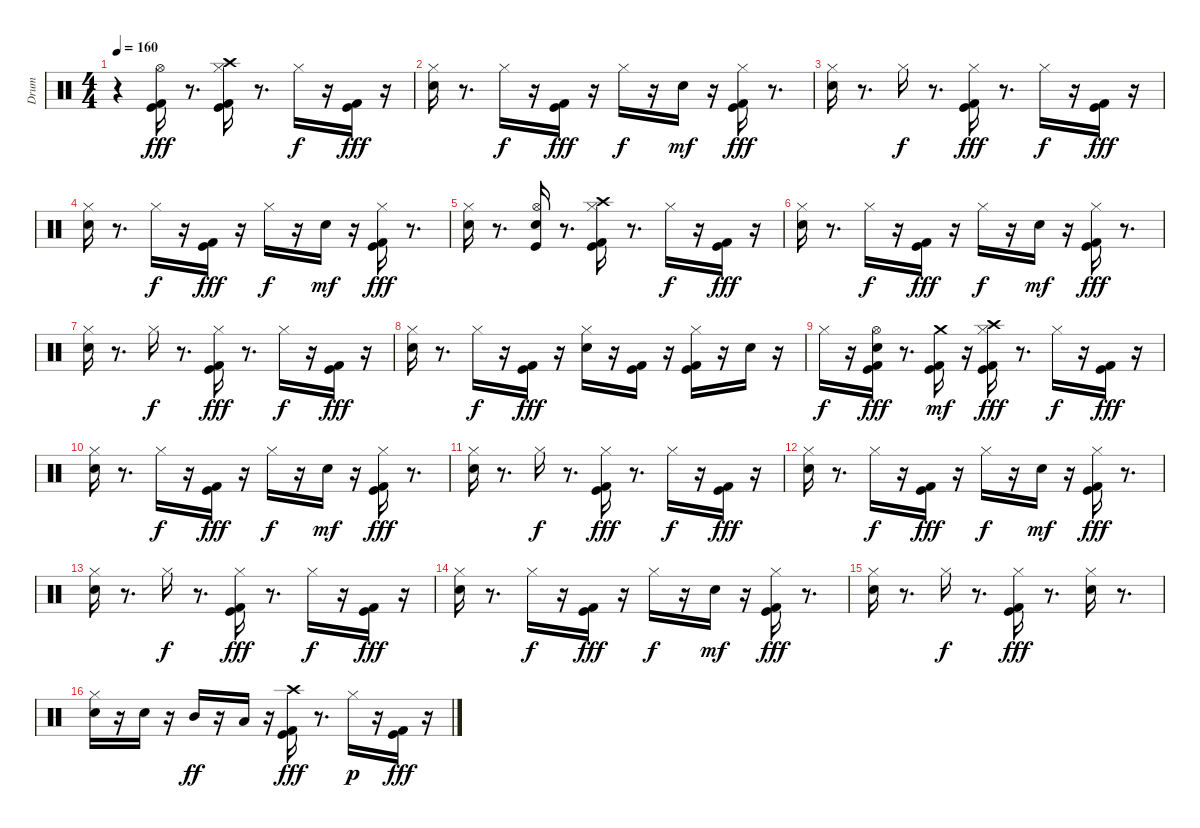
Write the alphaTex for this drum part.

\track ("Drum" "Drum") {instrument percussion}
\staff {score}
\articulation defaults
\ts (4 4)
\tempo 160
\clef neutral
\ks c
r.4{dy fff} ("Kick (hit)" "Kick (hit) 2" "Hi-Hat (open)").16 r.8{d} ("Crash high (hit)" "Kick (hit)" "Kick (hit) 2" "Hi-Hat (closed)").16 r.8{d} "Hi-Hat (closed)".16{dy f} r.16 ("Kick (hit)" "Kick (hit) 2").16{dy fff} r.16 |
("Hi-Hat (closed)" "Electric Snare (hit)").16 r.8{d} "Hi-Hat (closed)".16{dy f} r.16 ("Kick (hit)" "Kick (hit) 2").16{dy fff} r.16 "Hi-Hat (closed)".16{dy f} r.16 "Electric Snare (hit)".16{dy mf} r.16 ("Kick (hit)" "Kick (hit) 2" "Hi-Hat (closed)").16{dy fff} r.8{d} |
("Hi-Hat (closed)" "Electric Snare (hit)").16 r.8{d} "Hi-Hat (closed)".16{dy f} r.8{d} ("Kick (hit)" "Kick (hit) 2" "Hi-Hat (closed)").16{dy fff} r.8{d} "Hi-Hat (closed)".16{dy f} r.16 ("Kick (hit)" "Kick (hit) 2").16{dy fff} r.16 |
("Hi-Hat (closed)" "Electric Snare (hit)").16 r.8{d} "Hi-Hat (closed)".16{dy f} r.16 ("Kick (hit)" "Kick (hit) 2").16{dy fff} r.16 "Hi-Hat (closed)".16{dy f} r.16 "Electric Snare (hit)".16{dy mf} r.16 ("Kick (hit)" "Kick (hit) 2" "Hi-Hat (closed)").16{dy fff} r.8{d} |
("Hi-Hat (closed)" "Electric Snare (hit)").16 r.8{d} ("Hi-Hat (open)" "Electric Snare (hit)" "Kick (hit)").16 r.8{d} ("Crash high (hit)" "Kick (hit)" "Kick (hit) 2" "Hi-Hat (closed)").16 r.8{d} "Hi-Hat (closed)".16{dy f} r.16 ("Kick (hit)" "Kick (hit) 2").16{dy fff} r.16 |
("Hi-Hat (closed)" "Electric Snare (hit)").16 r.8{d} "Hi-Hat (closed)".16{dy f} r.16 ("Kick (hit)" "Kick (hit) 2").16{dy fff} r.16 "Hi-Hat (closed)".16{dy f} r.16 "Electric Snare (hit)".16{dy mf} r.16 ("Kick (hit)" "Kick (hit) 2" "Hi-Hat (closed)").16{dy fff} r.8{d} |
("Hi-Hat (closed)" "Electric Snare (hit)").16 r.8{d} "Hi-Hat (closed)".16{dy f} r.8{d} ("Kick (hit)" "Kick (hit) 2" "Hi-Hat (closed)").16{dy fff} r.8{d} "Hi-Hat (closed)".16{dy f} r.16 ("Kick (hit)" "Kick (hit) 2").16{dy fff} r.16 |
("Hi-Hat (closed)" "Electric Snare (hit)").16 r.8{d} "Hi-Hat (closed)".16{dy f} r.16 ("Kick (hit)" "Kick (hit) 2").16{dy fff} r.16 ("Hi-Hat (closed)" "Electric Snare (hit)").16 r.16 ("Kick (hit)" "Kick (hit) 2").16 r.16 ("Kick (hit)" "Kick (hit) 2" "Hi-Hat (closed)").16 r.16 "Electric Snare (hit)".16 r.16 |
"Hi-Hat (closed)".16{dy f} r.16 ("Kick (hit)" "Kick (hit) 2" "Hi-Hat (open)" "Electric Snare (hit)").16{dy fff} r.8{d} ("Kick (hit)" "Kick (hit) 2" "Crash medium (hit)").16{dy mf} r.16 ("Crash high (hit)" "Kick (hit)" "Kick (hit) 2" "Hi-Hat (closed)").16{dy fff} r.8{d} "Hi-Hat (closed)".16{dy f} r.16 ("Kick (hit)" "Kick (hit) 2").16{dy fff} r.16 |
("Hi-Hat (closed)" "Electric Snare (hit)").16 r.8{d} "Hi-Hat (closed)".16{dy f} r.16 ("Kick (hit)" "Kick (hit) 2").16{dy fff} r.16 "Hi-Hat (closed)".16{dy f} r.16 "Electric Snare (hit)".16{dy mf} r.16 ("Kick (hit)" "Kick (hit) 2" "Hi-Hat (closed)").16{dy fff} r.8{d} |
("Hi-Hat (closed)" "Electric Snare (hit)").16 r.8{d} "Hi-Hat (closed)".16{dy f} r.8{d} ("Kick (hit)" "Kick (hit) 2" "Hi-Hat (closed)").16{dy fff} r.8{d} "Hi-Hat (closed)".16{dy f} r.16 ("Kick (hit)" "Kick (hit) 2").16{dy fff} r.16 |
("Hi-Hat (closed)" "Electric Snare (hit)").16 r.8{d} "Hi-Hat (closed)".16{dy f} r.16 ("Kick (hit)" "Kick (hit) 2").16{dy fff} r.16 "Hi-Hat (closed)".16{dy f} r.16 "Electric Snare (hit)".16{dy mf} r.16 ("Kick (hit)" "Kick (hit) 2" "Hi-Hat (closed)").16{dy fff} r.8{d} |
("Hi-Hat (closed)" "Electric Snare (hit)").16 r.8{d} "Hi-Hat (closed)".16{dy f} r.8{d} ("Kick (hit)" "Kick (hit) 2" "Hi-Hat (closed)").16{dy fff} r.8{d} "Hi-Hat (closed)".16{dy f} r.16 ("Kick (hit)" "Kick (hit) 2").16{dy fff} r.16 |
("Hi-Hat (closed)" "Electric Snare (hit)").16 r.8{d} "Hi-Hat (closed)".16{dy f} r.16 ("Kick (hit)" "Kick (hit) 2").16{dy fff} r.16 "Hi-Hat (closed)".16{dy f} r.16 "Electric Snare (hit)".16{dy mf} r.16 ("Kick (hit)" "Kick (hit) 2" "Hi-Hat (closed)").16{dy fff} r.8{d} |
("Hi-Hat (closed)" "Electric Snare (hit)").16 r.8{d} "Hi-Hat (closed)".16{dy f} r.8{d} ("Hi-Hat (closed)" "Kick (hit)" "Kick (hit) 2").16{dy fff} r.8{d} ("Hi-Hat (closed)" "Electric Snare (hit)").16 r.8{d} |
("Hi-Hat (closed)" "Electric Snare (hit)").16 r.16 "Electric Snare (hit)".16 r.16 "Mid Tom (hit)".16{dy ff} r.16 "Low Tom (hit)".16 r.16 ("Crash high (hit)" "Kick (hit) 2" "Kick (hit)").16{dy fff} r.8{d} "Hi-Hat (closed)".16{dy p} r.16 ("Kick (hit)" "Kick (hit) 2").16{dy fff} r.16
